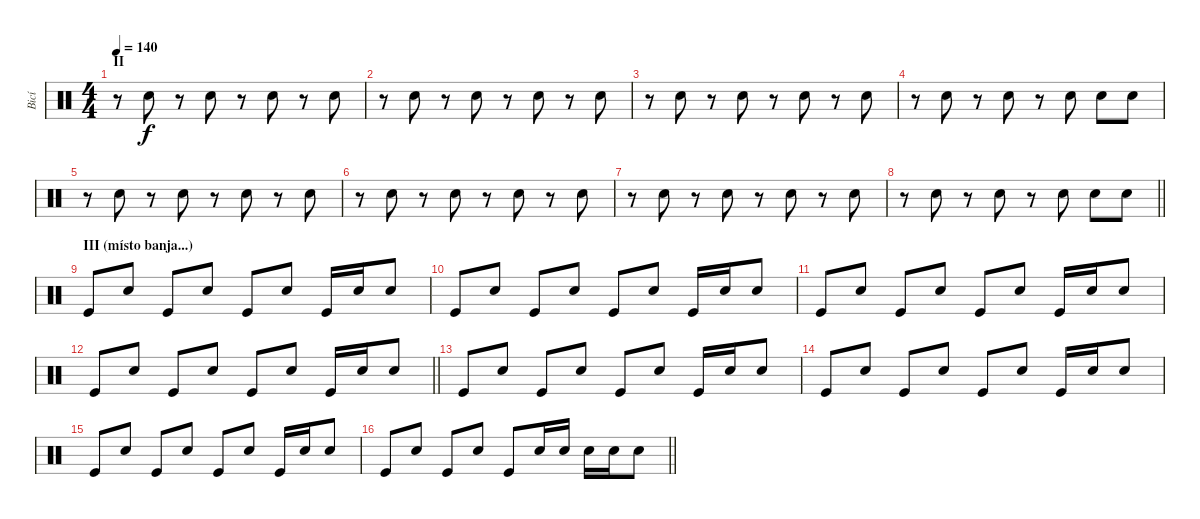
\track ("Bicí" "Bicí") {instrument percussion}
\staff {score}
\articulation defaults
\ts (4 4)
\section ("" "II")
\tempo 140
\clef neutral
\ks c
r.8{dy f} "Electric Snare (hit)".8 r.8 "Electric Snare (hit)".8 r.8 "Electric Snare (hit)".8 r.8 "Electric Snare (hit)".8 |
r.8 "Electric Snare (hit)".8 r.8 "Electric Snare (hit)".8 r.8 "Electric Snare (hit)".8 r.8 "Electric Snare (hit)".8 |
r.8 "Electric Snare (hit)".8 r.8 "Electric Snare (hit)".8 r.8 "Electric Snare (hit)".8 r.8 "Electric Snare (hit)".8 |
r.8 "Electric Snare (hit)".8 r.8 "Electric Snare (hit)".8 r.8 "Electric Snare (hit)".8 "Electric Snare (hit)".8 "Electric Snare (hit)".8 |
r.8 "Electric Snare (hit)".8 r.8 "Electric Snare (hit)".8 r.8 "Electric Snare (hit)".8 r.8 "Electric Snare (hit)".8 |
r.8 "Electric Snare (hit)".8 r.8 "Electric Snare (hit)".8 r.8 "Electric Snare (hit)".8 r.8 "Electric Snare (hit)".8 |
r.8 "Electric Snare (hit)".8 r.8 "Electric Snare (hit)".8 r.8 "Electric Snare (hit)".8 r.8 "Electric Snare (hit)".8 |
\barLineRight lightlight
r.8 "Electric Snare (hit)".8 r.8 "Electric Snare (hit)".8 r.8 "Electric Snare (hit)".8 "Electric Snare (hit)".8 "Electric Snare (hit)".8 |
\section ("" "III (místo banja...)")
"Kick (hit)".8 "Electric Snare (hit)".8 "Kick (hit)".8 "Electric Snare (hit)".8 "Kick (hit)".8 "Electric Snare (hit)".8 "Kick (hit)".16 "Electric Snare (hit)".16 "Electric Snare (hit)".8 |
"Kick (hit)".8 "Electric Snare (hit)".8 "Kick (hit)".8 "Electric Snare (hit)".8 "Kick (hit)".8 "Electric Snare (hit)".8 "Kick (hit)".16 "Electric Snare (hit)".16 "Electric Snare (hit)".8 |
"Kick (hit)".8 "Electric Snare (hit)".8 "Kick (hit)".8 "Electric Snare (hit)".8 "Kick (hit)".8 "Electric Snare (hit)".8 "Kick (hit)".16 "Electric Snare (hit)".16 "Electric Snare (hit)".8 |
\barLineRight lightlight "Kick (hit)".8 "Electric Snare (hit)".8 "Kick (hit)".8 "Electric Snare (hit)".8 "Kick (hit)".8 "Electric Snare (hit)".8 "Kick (hit)".16 "Electric Snare (hit)".16 "Electric Snare (hit)".8
|
"Kick (hit)".8 "Electric Snare (hit)".8 "Kick (hit)".8 "Electric Snare (hit)".8 "Kick (hit)".8 "Electric Snare (hit)".8 "Kick (hit)".16 "Electric Snare (hit)".16 "Electric Snare (hit)".8 |
"Kick (hit)".8 "Electric Snare (hit)".8 "Kick (hit)".8 "Electric Snare (hit)".8 "Kick (hit)".8 "Electric Snare (hit)".8 "Kick (hit)".16 "Electric Snare (hit)".16 "Electric Snare (hit)".8 |
"Kick (hit)".8 "Electric Snare (hit)".8 "Kick (hit)".8 "Electric Snare (hit)".8 "Kick (hit)".8 "Electric Snare (hit)".8 "Kick (hit)".16 "Electric Snare (hit)".16 "Electric Snare (hit)".8 |
\barLineRight lightlight "Kick (hit)".8 "Electric Snare (hit)".8 "Kick (hit)".8 "Electric Snare (hit)".8 "Kick (hit)".8 "Electric Snare (hit)".16 "Electric Snare (hit)".16 "Electric Snare (hit)".16 "Electric Snare (hit)".16 "Electric Snare (hit)".8
